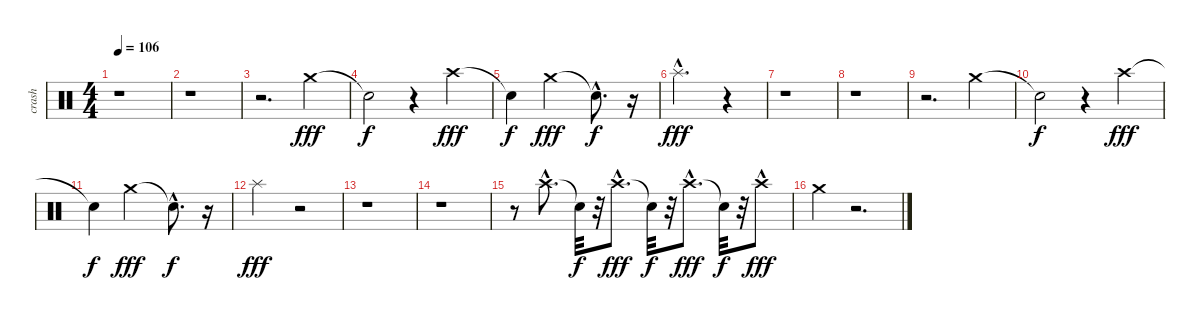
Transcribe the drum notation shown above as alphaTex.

\track ("crash" "crash") {instrument percussion}
\staff {score}
\articulation defaults
\ts (4 4)
\tempo 106
\clef neutral
\ks c
r.1{dy fff} |
r.1 |
r.2{d} "Crash medium (hit)".4 |
"Snare (hit)"{t}.2{dy f} r.4 "Crash high (hit)".4{dy fff} |
"Snare (hit)"{t}.4{dy f} "Crash medium (hit)".2{dy fff} "Snare (hit)"{hac t}.8{d dy f} r.16 |
"Splash (hit)"{hac}.2{d dy fff} r.4 |
r.1 |
r.1 |
r.2{d} "Crash medium (hit)".4 |
"Snare (hit)"{t}.2{dy f} r.4 "Crash high (hit)".4{dy fff} |
"Snare (hit)"{t}.4{dy f} "Crash medium (hit)".2{dy fff} "Snare (hit)"{hac t}.8{d dy f} r.16 |
"Splash (hit)".2{dy fff} r.2 |
r.1 |
r.1 |
r.8 "Crash high (hit)"{hac}.8{d} "Snare (hit)"{t}.32{dy f} r.32 "Crash high (hit)"{hac}.8{d dy fff} "Snare (hit)"{t}.32{dy f} r.32 "Crash high (hit)"{hac}.8{d dy fff} "Snare (hit)"{t}.32{dy f} r.32 "Crash high (hit)"{hac}.8{dy fff} |
"Crash medium (hit)".4 r.2{d}
